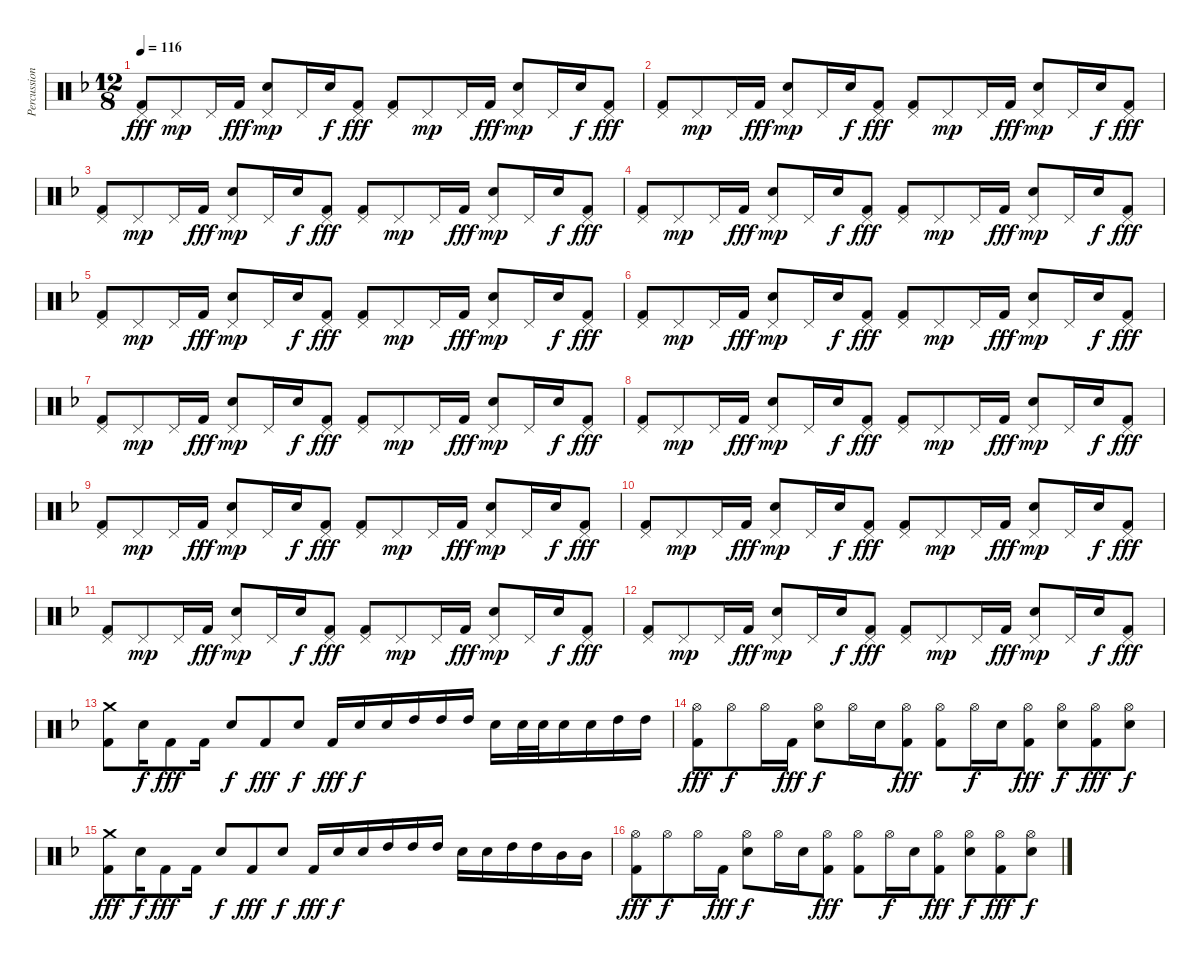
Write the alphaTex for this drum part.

\track ("Percussions" "Percussion") {instrument percussion}
\staff {score}
\articulation defaults
\ts (12 8)
\tempo 116
\clef neutral
\ks f
("Pedal Hi-Hat (hit)" "Kick (hit) 2").8{dy fff} "Pedal Hi-Hat (hit)".8{dy mp} "Pedal Hi-Hat (hit)".16 "Kick (hit) 2".16{dy fff} ("Pedal Hi-Hat (hit)" "Snare (hit) 2").8{dy mp} "Pedal Hi-Hat (hit)".16 "Snare (hit) 2".16{dy f} ("Pedal Hi-Hat (hit)" "Kick (hit) 2").8{dy fff} ("Pedal Hi-Hat (hit)" "Kick (hit) 2").8 "Pedal Hi-Hat (hit)".8{dy mp} "Pedal Hi-Hat (hit)".16 "Kick (hit) 2".16{dy fff} ("Pedal Hi-Hat (hit)" "Snare (hit) 2").8{dy mp} "Pedal Hi-Hat (hit)".16 "Snare (hit) 2".16{dy f} ("Pedal Hi-Hat (hit)" "Kick (hit) 2").8{dy fff} |
("Pedal Hi-Hat (hit)" "Kick (hit) 2").8 "Pedal Hi-Hat (hit)".8{dy mp} "Pedal Hi-Hat (hit)".16 "Kick (hit) 2".16{dy fff} ("Pedal Hi-Hat (hit)" "Snare (hit) 2").8{dy mp} "Pedal Hi-Hat (hit)".16 "Snare (hit) 2".16{dy f} ("Pedal Hi-Hat (hit)" "Kick (hit) 2").8{dy fff} ("Pedal Hi-Hat (hit)" "Kick (hit) 2").8 "Pedal Hi-Hat (hit)".8{dy mp} "Pedal Hi-Hat (hit)".16 "Kick (hit) 2".16{dy fff} ("Pedal Hi-Hat (hit)" "Snare (hit) 2").8{dy mp} "Pedal Hi-Hat (hit)".16 "Snare (hit) 2".16{dy f} ("Pedal Hi-Hat (hit)" "Kick (hit) 2").8{dy fff} |
("Pedal Hi-Hat (hit)" "Kick (hit) 2").8 "Pedal Hi-Hat (hit)".8{dy mp} "Pedal Hi-Hat (hit)".16 "Kick (hit) 2".16{dy fff} ("Pedal Hi-Hat (hit)" "Snare (hit) 2").8{dy mp} "Pedal Hi-Hat (hit)".16 "Snare (hit) 2".16{dy f} ("Pedal Hi-Hat (hit)" "Kick (hit) 2").8{dy fff} ("Pedal Hi-Hat (hit)" "Kick (hit) 2").8 "Pedal Hi-Hat (hit)".8{dy mp} "Pedal Hi-Hat (hit)".16 "Kick (hit) 2".16{dy fff} ("Pedal Hi-Hat (hit)" "Snare (hit) 2").8{dy mp} "Pedal Hi-Hat (hit)".16 "Snare (hit) 2".16{dy f} ("Pedal Hi-Hat (hit)" "Kick (hit) 2").8{dy fff} |
("Pedal Hi-Hat (hit)" "Kick (hit) 2").8 "Pedal Hi-Hat (hit)".8{dy mp} "Pedal Hi-Hat (hit)".16 "Kick (hit) 2".16{dy fff} ("Pedal Hi-Hat (hit)" "Snare (hit) 2").8{dy mp} "Pedal Hi-Hat (hit)".16 "Snare (hit) 2".16{dy f} ("Pedal Hi-Hat (hit)" "Kick (hit) 2").8{dy fff} ("Pedal Hi-Hat (hit)" "Kick (hit) 2").8 "Pedal Hi-Hat (hit)".8{dy mp} "Pedal Hi-Hat (hit)".16 "Kick (hit) 2".16{dy fff} ("Pedal Hi-Hat (hit)" "Snare (hit) 2").8{dy mp} "Pedal Hi-Hat (hit)".16 "Snare (hit) 2".16{dy f} ("Pedal Hi-Hat (hit)" "Kick (hit) 2").8{dy fff} |
("Pedal Hi-Hat (hit)" "Kick (hit) 2").8 "Pedal Hi-Hat (hit)".8{dy mp} "Pedal Hi-Hat (hit)".16 "Kick (hit) 2".16{dy fff} ("Pedal Hi-Hat (hit)" "Snare (hit) 2").8{dy mp} "Pedal Hi-Hat (hit)".16 "Snare (hit) 2".16{dy f} ("Pedal Hi-Hat (hit)" "Kick (hit) 2").8{dy fff} ("Pedal Hi-Hat (hit)" "Kick (hit) 2").8 "Pedal Hi-Hat (hit)".8{dy mp} "Pedal Hi-Hat (hit)".16 "Kick (hit) 2".16{dy fff} ("Pedal Hi-Hat (hit)" "Snare (hit) 2").8{dy mp} "Pedal Hi-Hat (hit)".16 "Snare (hit) 2".16{dy f} ("Pedal Hi-Hat (hit)" "Kick (hit) 2").8{dy fff} |
("Pedal Hi-Hat (hit)" "Kick (hit) 2").8 "Pedal Hi-Hat (hit)".8{dy mp} "Pedal Hi-Hat (hit)".16 "Kick (hit) 2".16{dy fff} ("Pedal Hi-Hat (hit)" "Snare (hit) 2").8{dy mp} "Pedal Hi-Hat (hit)".16 "Snare (hit) 2".16{dy f} ("Pedal Hi-Hat (hit)" "Kick (hit) 2").8{dy fff} ("Pedal Hi-Hat (hit)" "Kick (hit) 2").8 "Pedal Hi-Hat (hit)".8{dy mp} "Pedal Hi-Hat (hit)".16 "Kick (hit) 2".16{dy fff} ("Pedal Hi-Hat (hit)" "Snare (hit) 2").8{dy mp} "Pedal Hi-Hat (hit)".16 "Snare (hit) 2".16{dy f} ("Pedal Hi-Hat (hit)" "Kick (hit) 2").8{dy fff} |
("Pedal Hi-Hat (hit)" "Kick (hit) 2").8 "Pedal Hi-Hat (hit)".8{dy mp} "Pedal Hi-Hat (hit)".16 "Kick (hit) 2".16{dy fff} ("Pedal Hi-Hat (hit)" "Snare (hit) 2").8{dy mp} "Pedal Hi-Hat (hit)".16 "Snare (hit) 2".16{dy f} ("Pedal Hi-Hat (hit)" "Kick (hit) 2").8{dy fff} ("Pedal Hi-Hat (hit)" "Kick (hit) 2").8 "Pedal Hi-Hat (hit)".8{dy mp} "Pedal Hi-Hat (hit)".16 "Kick (hit) 2".16{dy fff} ("Pedal Hi-Hat (hit)" "Snare (hit) 2").8{dy mp} "Pedal Hi-Hat (hit)".16 "Snare (hit) 2".16{dy f} ("Pedal Hi-Hat (hit)" "Kick (hit) 2").8{dy fff} |
("Pedal Hi-Hat (hit)" "Kick (hit) 2").8 "Pedal Hi-Hat (hit)".8{dy mp} "Pedal Hi-Hat (hit)".16 "Kick (hit) 2".16{dy fff} ("Pedal Hi-Hat (hit)" "Snare (hit) 2").8{dy mp} "Pedal Hi-Hat (hit)".16 "Snare (hit) 2".16{dy f} ("Pedal Hi-Hat (hit)" "Kick (hit) 2").8{dy fff} ("Pedal Hi-Hat (hit)" "Kick (hit) 2").8 "Pedal Hi-Hat (hit)".8{dy mp} "Pedal Hi-Hat (hit)".16 "Kick (hit) 2".16{dy fff} ("Pedal Hi-Hat (hit)" "Snare (hit) 2").8{dy mp} "Pedal Hi-Hat (hit)".16 "Snare (hit) 2".16{dy f} ("Pedal Hi-Hat (hit)" "Kick (hit) 2").8{dy fff} |
("Pedal Hi-Hat (hit)" "Kick (hit) 2").8 "Pedal Hi-Hat (hit)".8{dy mp} "Pedal Hi-Hat (hit)".16 "Kick (hit) 2".16{dy fff} ("Pedal Hi-Hat (hit)" "Snare (hit) 2").8{dy mp} "Pedal Hi-Hat (hit)".16 "Snare (hit) 2".16{dy f} ("Pedal Hi-Hat (hit)" "Kick (hit) 2").8{dy fff} ("Pedal Hi-Hat (hit)" "Kick (hit) 2").8 "Pedal Hi-Hat (hit)".8{dy mp} "Pedal Hi-Hat (hit)".16 "Kick (hit) 2".16{dy fff} ("Pedal Hi-Hat (hit)" "Snare (hit) 2").8{dy mp} "Pedal Hi-Hat (hit)".16 "Snare (hit) 2".16{dy f} ("Pedal Hi-Hat (hit)" "Kick (hit) 2").8{dy fff} |
("Pedal Hi-Hat (hit)" "Kick (hit) 2").8 "Pedal Hi-Hat (hit)".8{dy mp} "Pedal Hi-Hat (hit)".16 "Kick (hit) 2".16{dy fff} ("Pedal Hi-Hat (hit)" "Snare (hit) 2").8{dy mp} "Pedal Hi-Hat (hit)".16 "Snare (hit) 2".16{dy f} ("Pedal Hi-Hat (hit)" "Kick (hit) 2").8{dy fff} ("Pedal Hi-Hat (hit)" "Kick (hit) 2").8 "Pedal Hi-Hat (hit)".8{dy mp} "Pedal Hi-Hat (hit)".16 "Kick (hit) 2".16{dy fff} ("Pedal Hi-Hat (hit)" "Snare (hit) 2").8{dy mp} "Pedal Hi-Hat (hit)".16 "Snare (hit) 2".16{dy f} ("Pedal Hi-Hat (hit)" "Kick (hit) 2").8{dy fff} |
("Pedal Hi-Hat (hit)" "Kick (hit) 2").8 "Pedal Hi-Hat (hit)".8{dy mp} "Pedal Hi-Hat (hit)".16 "Kick (hit) 2".16{dy fff} ("Pedal Hi-Hat (hit)" "Snare (hit) 2").8{dy mp} "Pedal Hi-Hat (hit)".16 "Snare (hit) 2".16{dy f} ("Pedal Hi-Hat (hit)" "Kick (hit) 2").8{dy fff} ("Pedal Hi-Hat (hit)" "Kick (hit) 2").8 "Pedal Hi-Hat (hit)".8{dy mp} "Pedal Hi-Hat (hit)".16 "Kick (hit) 2".16{dy fff} ("Pedal Hi-Hat (hit)" "Snare (hit) 2").8{dy mp} "Pedal Hi-Hat (hit)".16 "Snare (hit) 2".16{dy f} ("Pedal Hi-Hat (hit)" "Kick (hit) 2").8{dy fff} |
("Pedal Hi-Hat (hit)" "Kick (hit) 2").8 "Pedal Hi-Hat (hit)".8{dy mp} "Pedal Hi-Hat (hit)".16 "Kick (hit) 2".16{dy fff} ("Pedal Hi-Hat (hit)" "Snare (hit) 2").8{dy mp} "Pedal Hi-Hat (hit)".16 "Snare (hit) 2".16{dy f} ("Pedal Hi-Hat (hit)" "Kick (hit) 2").8{dy fff} ("Pedal Hi-Hat (hit)" "Kick (hit) 2").8 "Pedal Hi-Hat (hit)".8{dy mp} "Pedal Hi-Hat (hit)".16 "Kick (hit) 2".16{dy fff} ("Pedal Hi-Hat (hit)" "Snare (hit) 2").8{dy mp} "Pedal Hi-Hat (hit)".16 "Snare (hit) 2".16{dy f} ("Pedal Hi-Hat (hit)" "Kick (hit) 2").8{dy fff} |
("Crash medium (hit)" "Kick (hit) 2").8 "Snare (hit) 2".16{dy f} "Kick (hit) 2".8{dy fff} "Kick (hit) 2".16 "Snare (hit) 2".8{dy f} "Kick (hit) 2".8{dy fff} "Snare (hit) 2".8{dy f} "Kick (hit) 2".16{dy fff} "Snare (hit) 2".16{dy f} "Snare (hit) 2".16 "High Tom (hit)".16 "High Tom (hit)".16 "High Tom (hit)".16 "Snare (hit) 2".16 "Snare (hit) 2".32 "Snare (hit) 2".32 "Snare (hit) 2".16 "Snare (hit) 2".16 "High Tom (hit)".16 "High Tom (hit)".16 |
("Hi-Hat (open)" "Kick (hit) 2").8{dy fff} "Hi-Hat (open)".8{dy f} "Hi-Hat (open)".16 "Kick (hit) 2".16{dy fff} ("Hi-Hat (open)" "Snare (hit) 2").8{dy f} "Hi-Hat (open)".16 "Snare (hit) 2".16 ("Hi-Hat (open)" "Kick (hit) 2").8{dy fff} ("Hi-Hat (open)" "Kick (hit) 2").8 "Hi-Hat (open)".16{dy f} "Snare (hit) 2".16 ("Hi-Hat (open)" "Kick (hit) 2").8{dy fff} ("Hi-Hat (open)" "Snare (hit) 2").8{dy f} ("Hi-Hat (open)" "Kick (hit) 2").8{dy fff} ("Hi-Hat (open)" "Snare (hit) 2").8{dy f} |
("Crash medium (hit)" "Kick (hit) 2").8{dy fff} "Snare (hit) 2".16{dy f} "Kick (hit) 2".8{dy fff} "Kick (hit) 2".16 "Snare (hit) 2".8{dy f} "Kick (hit) 2".8{dy fff} "Snare (hit) 2".8{dy f} "Kick (hit) 2".16{dy fff} "Snare (hit) 2".16{dy f} "Snare (hit) 2".16 "High Tom (hit)".16 "High Tom (hit)".16 "High Tom (hit)".16 "Snare (hit) 2".16 "Snare (hit) 2".16 "High Tom (hit)".16 "High Tom (hit)".16 "Mid Tom (hit)".16 "Mid Tom (hit)".16 |
("Hi-Hat (open)" "Kick (hit) 2").8{dy fff} "Hi-Hat (open)".8{dy f} "Hi-Hat (open)".16 "Kick (hit) 2".16{dy fff} ("Hi-Hat (open)" "Snare (hit) 2").8{dy f} "Hi-Hat (open)".16 "Snare (hit) 2".16 ("Hi-Hat (open)" "Kick (hit) 2").8{dy fff} ("Hi-Hat (open)" "Kick (hit) 2").8 "Hi-Hat (open)".16{dy f} "Snare (hit) 2".16 ("Hi-Hat (open)" "Kick (hit) 2").8{dy fff} ("Hi-Hat (open)" "Snare (hit) 2").8{dy f} ("Hi-Hat (open)" "Kick (hit) 2").8{dy fff} ("Hi-Hat (open)" "Snare (hit) 2").8{dy f}
